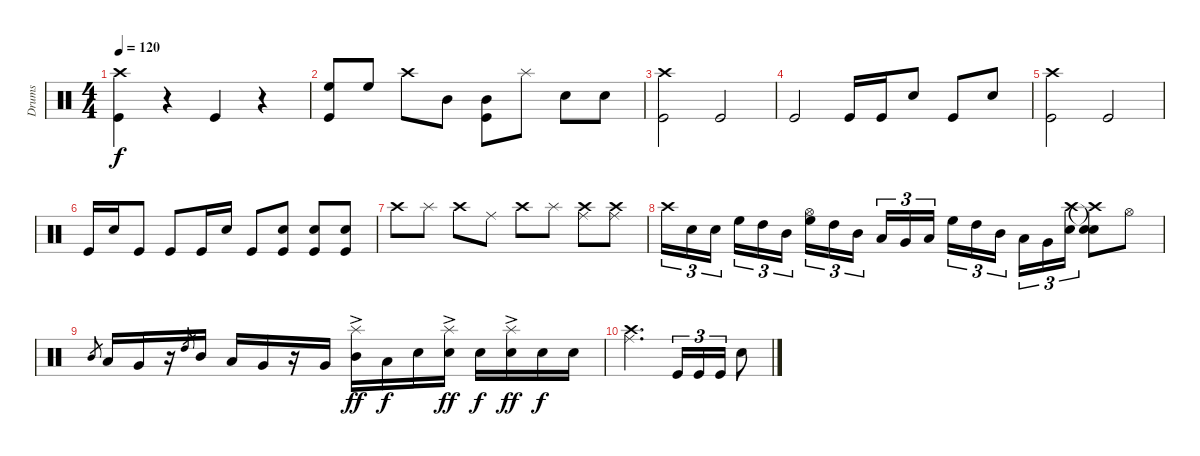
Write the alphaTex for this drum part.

\track ("Drums" "Drums") {instrument percussion}
\staff {score}
\articulation defaults
\ts (4 4)
\tempo 120
\clef neutral
\ks c
("Crash high (hit)" "Kick (hit)").4{dy f} r.4 "Kick (hit)".4 r.4 |
("High Floor Tom (hit)" "Kick (hit)").8 "High Floor Tom (hit)".8 "Crash high (hit)".8 "Mid Tom (hit)".8 ("Mid Tom (hit)" "Kick (hit)").8 "Splash (hit)".8 "Snare (hit) 2".8 "Snare (hit) 2".8 |
("Crash high (hit)" "Kick (hit)").2 "Kick (hit)".2 |
"Kick (hit)".2 "Kick (hit)".16 "Kick (hit)".16 "Snare (hit) 2".8 "Kick (hit)".8 "Snare (hit) 2".8 |
("Crash high (hit)" "Kick (hit)").2 "Kick (hit)".2 |
"Kick (hit)".16 "Snare (hit) 2".16 "Kick (hit)".8 "Kick (hit)".8 "Kick (hit)".16 "Snare (hit) 2".16 "Kick (hit)".8 ("Snare (hit) 2" "Kick (hit)").8 ("Snare (hit) 2" "Kick (hit)").8 ("Snare (hit) 2" "Kick (hit)").8 |
"Crash high (hit)".8 "Splash (hit)".8 "Crash high (hit)".8 "Ride (middle)".8 "Crash high (hit)".8 "Splash (hit)".8 ("Crash high (hit)" "Ride (middle)").8 ("Crash high (hit)" "Ride (middle)").8 |
"Crash high (hit)".16{tu (3 2)} "Snare (hit) 2".16{tu (3 2)} "Snare (hit) 2".16{tu (3 2) beam splitsecondary} "High Floor Tom (hit)".16{tu (3 2)} "High Tom (hit)".16{tu (3 2)} "Mid Tom (hit)".16{tu (3 2)} ("Hi-Hat (open)" "High Floor Tom (hit)").16{tu (3 2)} "High Tom (hit)".16{tu (3 2)} "Mid Tom (hit)".16{tu (3 2) beam splitsecondary} "Low Tom (hit)".16{tu (3 2)} "Very Low Tom (hit)".16{tu (3 2)} "Low Floor Tom (hit)".16{tu (3 2)} "High Floor Tom (hit)".16{tu (3 2)} "High Tom (hit)".16{tu (3 2)} "Mid Tom (hit)".16{tu (3 2) beam splitsecondary} "Low Tom (hit)".16{tu (3 2)} "Very Low Tom (hit)".16{tu (3 2)} ("Crash high (hit)" "Snare (hit) 2").16{tu (3 2)} ("Electric Snare (hit)"{t} "Crash high (hit)"{t} "Snare (hit)").8 "Hi-Hat (open)".8 |
"Mid Tom (hit)".8{gr} "Low Tom (hit)".16 "Very Low Tom (hit)".16 r.16 "High Tom (hit)".8{gr} "Mid Tom (hit)".16 "Low Tom (hit)".16 "Very Low Tom (hit)".16 r.16 "Very Low Tom (hit)".16 ("Mid Tom (hit)"{ac} "Splash (hit)").16{dy ff} "Low Tom (hit)".16{dy f} "Electric Snare (hit)".16 ("Electric Snare (hit)"{ac} "Splash (hit)").16{dy ff} "Electric Snare (hit)".16{dy f} ("Electric Snare (hit)"{ac} "Splash (hit)").16{dy ff} "Electric Snare (hit)".16{dy f} "Electric Snare (hit)".16 |
("Crash high (hit)" "Ride (middle)").2{d} "Kick (hit)".16{tu (3 2)} "Kick (hit)".16{tu (3 2)} "Kick (hit)".16{tu (3 2)} "Snare (hit) 2".8
